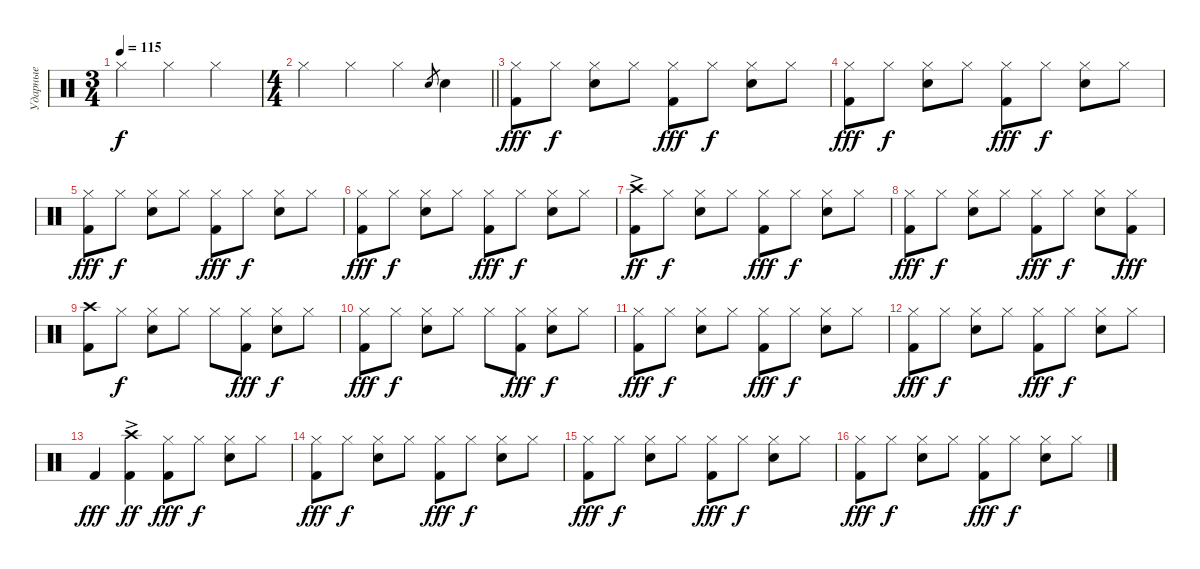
\track ("Ударные" "Ударные") {instrument percussion}
\staff {score}
\articulation defaults
\ts (3 4)
\tempo 115
\clef neutral
\ks c "Hi-Hat (closed)".4{dy f} "Hi-Hat (closed)".4 "Hi-Hat (closed)".4
|
\ts (4 4)
\barLineRight lightlight "Hi-Hat (closed)".4 "Hi-Hat (closed)".4 "Hi-Hat (closed)".4 "Snare (hit) 2".8{gr} "Snare (hit) 2".4
|
("Kick (hit) 2" "Hi-Hat (closed)").8{dy fff} "Hi-Hat (closed)".8{dy f} ("Snare (hit) 2" "Hi-Hat (closed)").8 "Hi-Hat (closed)".8 ("Kick (hit) 2" "Hi-Hat (closed)").8{dy fff} "Hi-Hat (closed)".8{dy f} ("Snare (hit) 2" "Hi-Hat (closed)").8 "Hi-Hat (closed)".8 |
("Kick (hit) 2" "Hi-Hat (closed)").8{dy fff} "Hi-Hat (closed)".8{dy f} ("Snare (hit) 2" "Hi-Hat (closed)").8 "Hi-Hat (closed)".8 ("Kick (hit) 2" "Hi-Hat (closed)").8{dy fff} "Hi-Hat (closed)".8{dy f} ("Snare (hit) 2" "Hi-Hat (closed)").8 "Hi-Hat (closed)".8 |
("Kick (hit) 2" "Hi-Hat (closed)").8{dy fff} "Hi-Hat (closed)".8{dy f} ("Snare (hit) 2" "Hi-Hat (closed)").8 "Hi-Hat (closed)".8 ("Kick (hit) 2" "Hi-Hat (closed)").8{dy fff} "Hi-Hat (closed)".8{dy f} ("Snare (hit) 2" "Hi-Hat (closed)").8 "Hi-Hat (closed)".8 |
("Kick (hit) 2" "Hi-Hat (closed)").8{dy fff} "Hi-Hat (closed)".8{dy f} ("Snare (hit) 2" "Hi-Hat (closed)").8 "Hi-Hat (closed)".8 ("Kick (hit) 2" "Hi-Hat (closed)").8{dy fff} "Hi-Hat (closed)".8{dy f} ("Snare (hit) 2" "Hi-Hat (closed)").8 "Hi-Hat (closed)".8 |
("Kick (hit) 2" "Crash high (hit)"{ac}).8{dy ff} "Hi-Hat (closed)".8{dy f} ("Snare (hit) 2" "Hi-Hat (closed)").8 "Hi-Hat (closed)".8 ("Kick (hit) 2" "Hi-Hat (closed)").8{dy fff} "Hi-Hat (closed)".8{dy f} ("Snare (hit) 2" "Hi-Hat (closed)").8 "Hi-Hat (closed)".8 |
("Kick (hit) 2" "Hi-Hat (closed)").8{dy fff} "Hi-Hat (closed)".8{dy f} ("Snare (hit) 2" "Hi-Hat (closed)").8 "Hi-Hat (closed)".8 ("Kick (hit) 2" "Hi-Hat (closed)").8{dy fff} "Hi-Hat (closed)".8{dy f} ("Snare (hit) 2" "Hi-Hat (closed)").8 ("Kick (hit) 2" "Hi-Hat (closed)").8{dy fff} |
("Kick (hit) 2" "Crash high (hit)").8 "Hi-Hat (closed)".8{dy f} ("Snare (hit) 2" "Hi-Hat (closed)").8 "Hi-Hat (closed)".8 "Hi-Hat (closed)".8 ("Kick (hit) 2" "Hi-Hat (closed)").8{dy fff} ("Snare (hit) 2" "Hi-Hat (closed)").8{dy f} "Hi-Hat (closed)".8 |
("Kick (hit) 2" "Hi-Hat (closed)").8{dy fff} "Hi-Hat (closed)".8{dy f} ("Snare (hit) 2" "Hi-Hat (closed)").8 "Hi-Hat (closed)".8 "Hi-Hat (closed)".8 ("Kick (hit) 2" "Hi-Hat (closed)").8{dy fff} ("Snare (hit) 2" "Hi-Hat (closed)").8{dy f} "Hi-Hat (closed)".8 |
("Kick (hit) 2" "Hi-Hat (closed)").8{dy fff} "Hi-Hat (closed)".8{dy f} ("Snare (hit) 2" "Hi-Hat (closed)").8 "Hi-Hat (closed)".8 ("Kick (hit) 2" "Hi-Hat (closed)").8{dy fff} "Hi-Hat (closed)".8{dy f} ("Snare (hit) 2" "Hi-Hat (closed)").8 "Hi-Hat (closed)".8 |
("Kick (hit) 2" "Hi-Hat (closed)").8{dy fff} "Hi-Hat (closed)".8{dy f} ("Snare (hit) 2" "Hi-Hat (closed)").8 "Hi-Hat (closed)".8 ("Kick (hit) 2" "Hi-Hat (closed)").8{dy fff} "Hi-Hat (closed)".8{dy f} ("Snare (hit) 2" "Hi-Hat (closed)").8 "Hi-Hat (closed)".8 |
"Kick (hit) 2".4{dy fff} ("Kick (hit) 2" "Crash high (hit)"{ac}).4{dy ff} ("Kick (hit) 2" "Hi-Hat (closed)").8{dy fff} "Hi-Hat (closed)".8{dy f} ("Snare (hit) 2" "Hi-Hat (closed)").8 "Hi-Hat (closed)".8 |
("Kick (hit) 2" "Hi-Hat (closed)").8{dy fff} "Hi-Hat (closed)".8{dy f} ("Snare (hit) 2" "Hi-Hat (closed)").8 "Hi-Hat (closed)".8 ("Kick (hit) 2" "Hi-Hat (closed)").8{dy fff} "Hi-Hat (closed)".8{dy f} ("Snare (hit) 2" "Hi-Hat (closed)").8 "Hi-Hat (closed)".8 |
("Kick (hit) 2" "Hi-Hat (closed)").8{dy fff} "Hi-Hat (closed)".8{dy f} ("Snare (hit) 2" "Hi-Hat (closed)").8 "Hi-Hat (closed)".8 ("Kick (hit) 2" "Hi-Hat (closed)").8{dy fff} "Hi-Hat (closed)".8{dy f} ("Snare (hit) 2" "Hi-Hat (closed)").8 "Hi-Hat (closed)".8 |
("Kick (hit) 2" "Hi-Hat (closed)").8{dy fff} "Hi-Hat (closed)".8{dy f} ("Snare (hit) 2" "Hi-Hat (closed)").8 "Hi-Hat (closed)".8 ("Kick (hit) 2" "Hi-Hat (closed)").8{dy fff} "Hi-Hat (closed)".8{dy f} ("Snare (hit) 2" "Hi-Hat (closed)").8 "Hi-Hat (closed)".8
